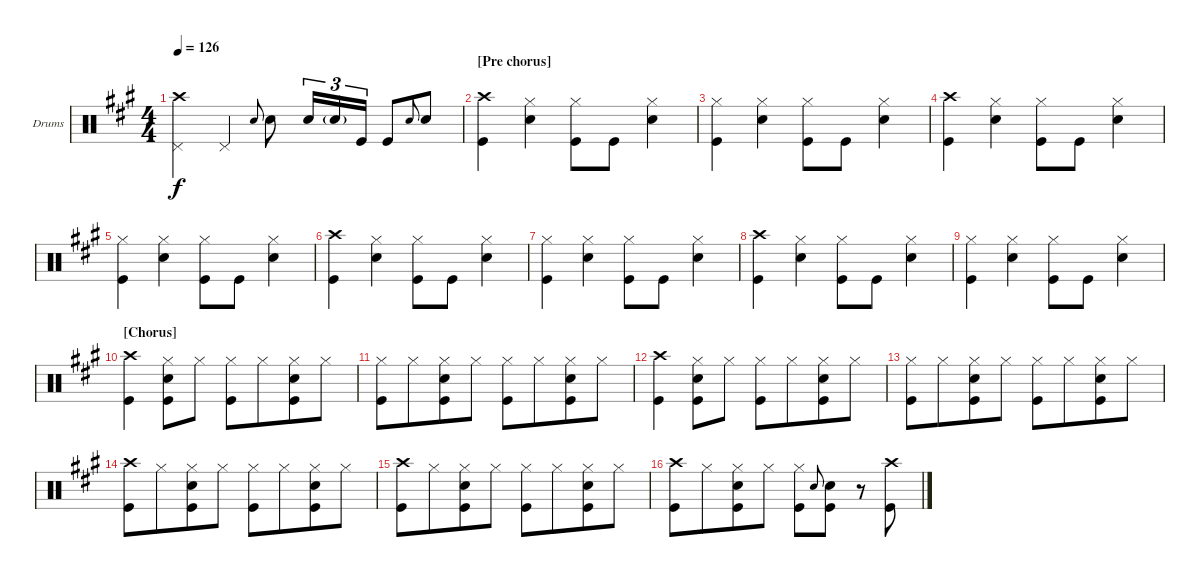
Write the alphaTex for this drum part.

\defaultSystemsLayout 4
\bracketExtendMode groupsimilarinstruments
\firstSystemTrackNameOrientation horizontal
\otherSystemsTrackNameOrientation horizontal
\track ("Drums" "Drums") {instrument percussion}
\staff {score}
\articulation defaults
\ts (4 4)
\tempo 126
\clef neutral
\ks a
("Crash high (hit)"{t} "Pedal Hi-Hat (hit)").4{dy f} "Pedal Hi-Hat (hit)".4 "Snare (hit) 2".8{gr onbeat} "Snare (hit) 2".8 "Snare (hit) 2".16{tu (3 2)} "Snare (hit) 2"{g}.16{tu (3 2)} "Kick (hit)".16{tu (3 2)} "Kick (hit)".8 "Snare (hit) 2".8{gr onbeat} "Snare (hit) 2".8 |
\section ("" "[Pre chorus]")
("Kick (hit)" "Crash high (hit)").4 ("Snare (hit) 2" "Hi-Hat (closed)").4 ("Kick (hit)" "Hi-Hat (closed)").8 "Kick (hit)".8 ("Snare (hit) 2" "Hi-Hat (closed)").4 |
("Hi-Hat (closed)" "Kick (hit)").4 ("Snare (hit) 2" "Hi-Hat (closed)").4 ("Kick (hit)" "Hi-Hat (closed)").8 "Kick (hit)".8 ("Snare (hit) 2" "Hi-Hat (closed)").4 |
("Kick (hit)" "Crash high (hit)").4 ("Snare (hit) 2" "Hi-Hat (closed)").4 ("Kick (hit)" "Hi-Hat (closed)").8 "Kick (hit)".8 ("Snare (hit) 2" "Hi-Hat (closed)").4 |
("Hi-Hat (closed)" "Kick (hit)").4 ("Snare (hit) 2" "Hi-Hat (closed)").4 ("Kick (hit)" "Hi-Hat (closed)").8 "Kick (hit)".8 ("Snare (hit) 2" "Hi-Hat (closed)").4 |
("Kick (hit)" "Crash high (hit)").4 ("Snare (hit) 2" "Hi-Hat (closed)").4 ("Kick (hit)" "Hi-Hat (closed)").8 "Kick (hit)".8 ("Snare (hit) 2" "Hi-Hat (closed)").4 |
("Hi-Hat (closed)" "Kick (hit)").4 ("Snare (hit) 2" "Hi-Hat (closed)").4 ("Kick (hit)" "Hi-Hat (closed)").8 "Kick (hit)".8 ("Snare (hit) 2" "Hi-Hat (closed)").4 |
("Kick (hit)" "Crash high (hit)").4 ("Snare (hit) 2" "Hi-Hat (closed)").4 ("Kick (hit)" "Hi-Hat (closed)").8 "Kick (hit)".8 ("Snare (hit) 2" "Hi-Hat (closed)").4 |
("Hi-Hat (closed)" "Kick (hit)").4 ("Snare (hit) 2" "Hi-Hat (closed)").4 ("Kick (hit)" "Hi-Hat (closed)").8 "Kick (hit)".8 ("Snare (hit) 2" "Hi-Hat (closed)").4 |
\section ("" "[Chorus]")
("Kick (hit)" "Crash high (hit)").4 ("Kick (hit)" "Hi-Hat (closed)" "Snare (hit) 2").8 "Hi-Hat (closed)".8 ("Kick (hit)" "Hi-Hat (closed)").8 "Hi-Hat (closed)".8{beam merge} ("Kick (hit)" "Hi-Hat (closed)" "Snare (hit) 2").8 "Hi-Hat (closed)".8 |
("Kick (hit)" "Hi-Hat (closed)").8 "Hi-Hat (closed)".8{beam merge} ("Kick (hit)" "Hi-Hat (closed)" "Snare (hit) 2").8 "Hi-Hat (closed)".8 ("Kick (hit)" "Hi-Hat (closed)").8 "Hi-Hat (closed)".8{beam merge} ("Kick (hit)" "Hi-Hat (closed)" "Snare (hit) 2").8 "Hi-Hat (closed)".8 |
("Kick (hit)" "Crash high (hit)").4 ("Kick (hit)" "Hi-Hat (closed)" "Snare (hit) 2").8 "Hi-Hat (closed)".8 ("Kick (hit)" "Hi-Hat (closed)").8 "Hi-Hat (closed)".8{beam merge} ("Kick (hit)" "Hi-Hat (closed)" "Snare (hit) 2").8 "Hi-Hat (closed)".8 |
("Kick (hit)" "Hi-Hat (closed)").8 "Hi-Hat (closed)".8{beam merge} ("Kick (hit)" "Hi-Hat (closed)" "Snare (hit) 2").8 "Hi-Hat (closed)".8 ("Kick (hit)" "Hi-Hat (closed)").8 "Hi-Hat (closed)".8{beam merge} ("Kick (hit)" "Hi-Hat (closed)" "Snare (hit) 2").8 "Hi-Hat (closed)".8 |
("Crash high (hit)" "Kick (hit)").8 "Hi-Hat (closed)".8{beam merge} ("Hi-Hat (closed)" "Kick (hit)" "Snare (hit) 2").8 "Hi-Hat (closed)".8 ("Hi-Hat (closed)" "Kick (hit)").8 "Hi-Hat (closed)".8{beam merge} ("Hi-Hat (closed)" "Kick (hit)" "Snare (hit) 2").8 "Hi-Hat (closed)".8 |
("Crash high (hit)" "Kick (hit)").8 "Hi-Hat (closed)".8{beam merge} ("Hi-Hat (closed)" "Kick (hit)" "Snare (hit) 2").8 "Hi-Hat (closed)".8 ("Hi-Hat (closed)" "Kick (hit)").8 "Hi-Hat (closed)".8{beam merge} ("Hi-Hat (closed)" "Kick (hit)" "Snare (hit) 2").8 "Hi-Hat (closed)".8 |
("Crash high (hit)" "Kick (hit)").8 "Hi-Hat (closed)".8{beam merge} ("Hi-Hat (closed)" "Kick (hit)" "Snare (hit) 2").8 "Hi-Hat (closed)".8 ("Kick (hit)" "Hi-Hat (closed)").8 "Snare (hit) 2".8{gr onbeat} ("Kick (hit)" "Snare (hit) 2").8 r.8 ("Kick (hit)" "Crash high (hit)").8
